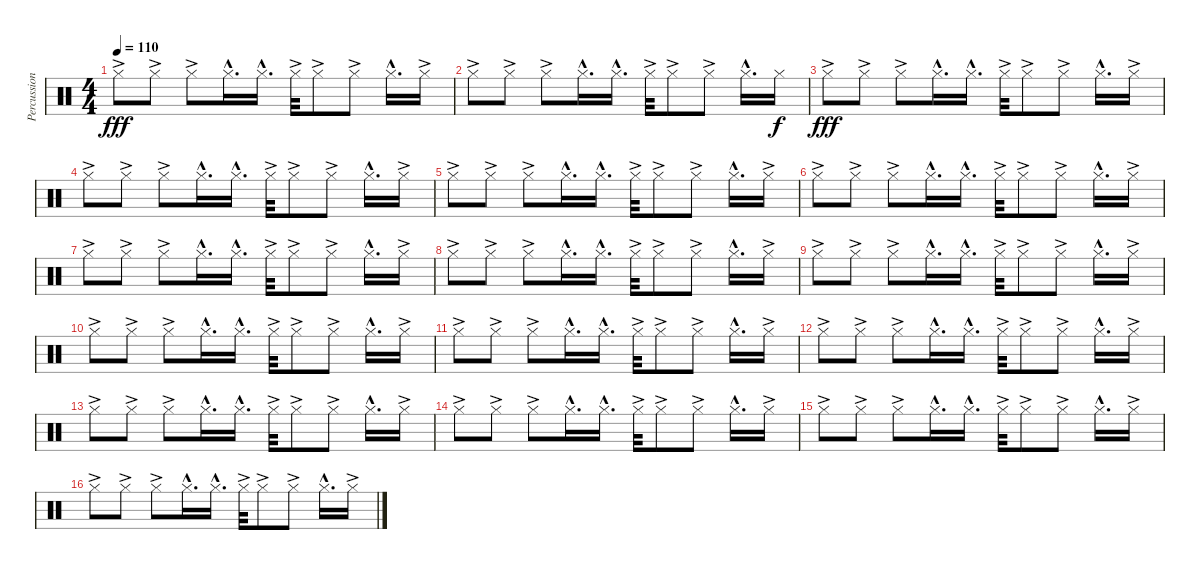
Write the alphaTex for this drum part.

\track ("Percussion" "Percussion") {instrument percussion}
\staff {score}
\articulation defaults
\ts (4 4)
\tempo 110
\clef neutral
\ks c "Hi-Hat (closed)"{ac}.8{dy fff} "Hi-Hat (closed)"{ac}.8 "Hi-Hat (closed)"{ac}.8 "Hi-Hat (closed)"{hac}.16{d} "Hi-Hat (closed)"{hac}.16{d} "Hi-Hat (closed)"{ac}.32 "Hi-Hat (closed)"{ac}.8 "Hi-Hat (closed)"{ac}.8 "Hi-Hat (closed)"{hac}.16{d} "Hi-Hat (closed)"{ac}.16
|
"Hi-Hat (closed)"{ac}.8 "Hi-Hat (closed)"{ac}.8 "Hi-Hat (closed)"{ac}.8 "Hi-Hat (closed)"{hac}.16{d} "Hi-Hat (closed)"{hac}.16{d} "Hi-Hat (closed)"{ac}.32 "Hi-Hat (closed)"{ac}.8 "Hi-Hat (closed)"{ac}.8 "Hi-Hat (closed)"{hac}.16{d} "Hi-Hat (closed)".16{dy f} |
"Hi-Hat (closed)"{ac}.8{dy fff} "Hi-Hat (closed)"{ac}.8 "Hi-Hat (closed)"{ac}.8 "Hi-Hat (closed)"{hac}.16{d} "Hi-Hat (closed)"{hac}.16{d} "Hi-Hat (closed)"{ac}.32 "Hi-Hat (closed)"{ac}.8 "Hi-Hat (closed)"{ac}.8 "Hi-Hat (closed)"{hac}.16{d} "Hi-Hat (closed)"{ac}.16 |
"Hi-Hat (closed)"{ac}.8 "Hi-Hat (closed)"{ac}.8 "Hi-Hat (closed)"{ac}.8 "Hi-Hat (closed)"{hac}.16{d} "Hi-Hat (closed)"{hac}.16{d} "Hi-Hat (closed)"{ac}.32 "Hi-Hat (closed)"{ac}.8 "Hi-Hat (closed)"{ac}.8 "Hi-Hat (closed)"{hac}.16{d} "Hi-Hat (closed)"{ac}.16 |
"Hi-Hat (closed)"{ac}.8 "Hi-Hat (closed)"{ac}.8 "Hi-Hat (closed)"{ac}.8 "Hi-Hat (closed)"{hac}.16{d} "Hi-Hat (closed)"{hac}.16{d} "Hi-Hat (closed)"{ac}.32 "Hi-Hat (closed)"{ac}.8 "Hi-Hat (closed)"{ac}.8 "Hi-Hat (closed)"{hac}.16{d} "Hi-Hat (closed)"{ac}.16 |
"Hi-Hat (closed)"{ac}.8 "Hi-Hat (closed)"{ac}.8 "Hi-Hat (closed)"{ac}.8 "Hi-Hat (closed)"{hac}.16{d} "Hi-Hat (closed)"{hac}.16{d} "Hi-Hat (closed)"{ac}.32 "Hi-Hat (closed)"{ac}.8 "Hi-Hat (closed)"{ac}.8 "Hi-Hat (closed)"{hac}.16{d} "Hi-Hat (closed)"{ac}.16 |
"Hi-Hat (closed)"{ac}.8 "Hi-Hat (closed)"{ac}.8 "Hi-Hat (closed)"{ac}.8 "Hi-Hat (closed)"{hac}.16{d} "Hi-Hat (closed)"{hac}.16{d} "Hi-Hat (closed)"{ac}.32 "Hi-Hat (closed)"{ac}.8 "Hi-Hat (closed)"{ac}.8 "Hi-Hat (closed)"{hac}.16{d} "Hi-Hat (closed)"{ac}.16 |
"Hi-Hat (closed)"{ac}.8 "Hi-Hat (closed)"{ac}.8 "Hi-Hat (closed)"{ac}.8 "Hi-Hat (closed)"{hac}.16{d} "Hi-Hat (closed)"{hac}.16{d} "Hi-Hat (closed)"{ac}.32 "Hi-Hat (closed)"{ac}.8 "Hi-Hat (closed)"{ac}.8 "Hi-Hat (closed)"{hac}.16{d} "Hi-Hat (closed)"{ac}.16 |
"Hi-Hat (closed)"{ac}.8 "Hi-Hat (closed)"{ac}.8 "Hi-Hat (closed)"{ac}.8 "Hi-Hat (closed)"{hac}.16{d} "Hi-Hat (closed)"{hac}.16{d} "Hi-Hat (closed)"{ac}.32 "Hi-Hat (closed)"{ac}.8 "Hi-Hat (closed)"{ac}.8 "Hi-Hat (closed)"{hac}.16{d} "Hi-Hat (closed)"{ac}.16 |
"Hi-Hat (closed)"{ac}.8 "Hi-Hat (closed)"{ac}.8 "Hi-Hat (closed)"{ac}.8 "Hi-Hat (closed)"{hac}.16{d} "Hi-Hat (closed)"{hac}.16{d} "Hi-Hat (closed)"{ac}.32 "Hi-Hat (closed)"{ac}.8 "Hi-Hat (closed)"{ac}.8 "Hi-Hat (closed)"{hac}.16{d} "Hi-Hat (closed)"{ac}.16 |
"Hi-Hat (closed)"{ac}.8 "Hi-Hat (closed)"{ac}.8 "Hi-Hat (closed)"{ac}.8 "Hi-Hat (closed)"{hac}.16{d} "Hi-Hat (closed)"{hac}.16{d} "Hi-Hat (closed)"{ac}.32 "Hi-Hat (closed)"{ac}.8 "Hi-Hat (closed)"{ac}.8 "Hi-Hat (closed)"{hac}.16{d} "Hi-Hat (closed)"{ac}.16 |
"Hi-Hat (closed)"{ac}.8 "Hi-Hat (closed)"{ac}.8 "Hi-Hat (closed)"{ac}.8 "Hi-Hat (closed)"{hac}.16{d} "Hi-Hat (closed)"{hac}.16{d} "Hi-Hat (closed)"{ac}.32 "Hi-Hat (closed)"{ac}.8 "Hi-Hat (closed)"{ac}.8 "Hi-Hat (closed)"{hac}.16{d} "Hi-Hat (closed)"{ac}.16 |
"Hi-Hat (closed)"{ac}.8 "Hi-Hat (closed)"{ac}.8 "Hi-Hat (closed)"{ac}.8 "Hi-Hat (closed)"{hac}.16{d} "Hi-Hat (closed)"{hac}.16{d} "Hi-Hat (closed)"{ac}.32 "Hi-Hat (closed)"{ac}.8 "Hi-Hat (closed)"{ac}.8 "Hi-Hat (closed)"{hac}.16{d} "Hi-Hat (closed)"{ac}.16 |
"Hi-Hat (closed)"{ac}.8 "Hi-Hat (closed)"{ac}.8 "Hi-Hat (closed)"{ac}.8 "Hi-Hat (closed)"{hac}.16{d} "Hi-Hat (closed)"{hac}.16{d} "Hi-Hat (closed)"{ac}.32 "Hi-Hat (closed)"{ac}.8 "Hi-Hat (closed)"{ac}.8 "Hi-Hat (closed)"{hac}.16{d} "Hi-Hat (closed)"{ac}.16 |
"Hi-Hat (closed)"{ac}.8 "Hi-Hat (closed)"{ac}.8 "Hi-Hat (closed)"{ac}.8 "Hi-Hat (closed)"{hac}.16{d} "Hi-Hat (closed)"{hac}.16{d} "Hi-Hat (closed)"{ac}.32 "Hi-Hat (closed)"{ac}.8 "Hi-Hat (closed)"{ac}.8 "Hi-Hat (closed)"{hac}.16{d} "Hi-Hat (closed)"{ac}.16 |
"Hi-Hat (closed)"{ac}.8 "Hi-Hat (closed)"{ac}.8 "Hi-Hat (closed)"{ac}.8 "Hi-Hat (closed)"{hac}.16{d} "Hi-Hat (closed)"{hac}.16{d} "Hi-Hat (closed)"{ac}.32 "Hi-Hat (closed)"{ac}.8 "Hi-Hat (closed)"{ac}.8 "Hi-Hat (closed)"{hac}.16{d} "Hi-Hat (closed)"{ac}.16
